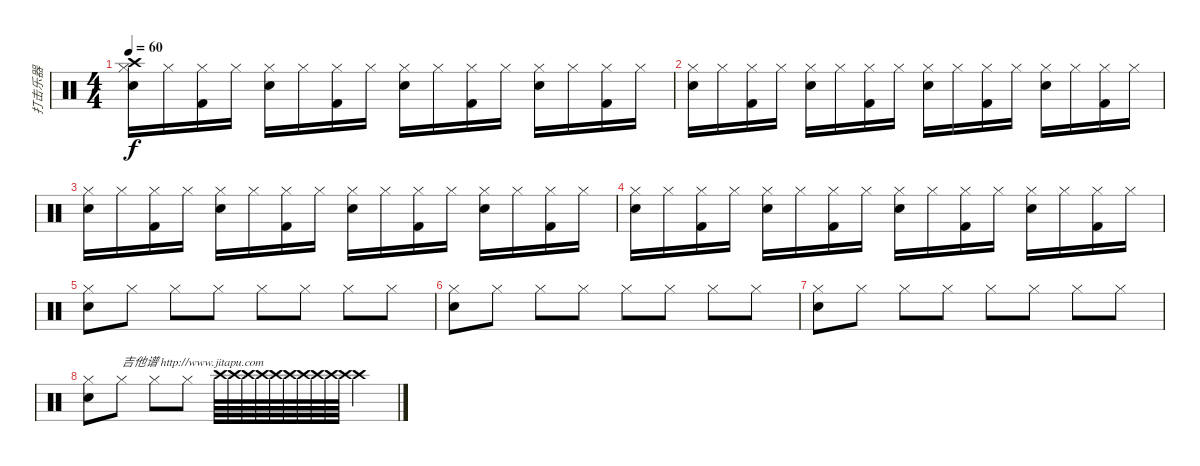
\track ("打击乐器" "打击乐器") {instrument percussion}
\staff {score}
\articulation defaults
\ts (4 4)
\tempo 60
\clef neutral
\ks c
("Crash high (hit)" "Snare (hit) 2" "Hi-Hat (closed)").16{dy f} "Hi-Hat (closed)".16 ("Kick (hit) 2" "Hi-Hat (closed)").16 "Hi-Hat (closed)".16 ("Snare (hit) 2" "Hi-Hat (closed)").16 "Hi-Hat (closed)".16 ("Kick (hit) 2" "Hi-Hat (closed)").16 "Hi-Hat (closed)".16 ("Snare (hit) 2" "Hi-Hat (closed)").16 "Hi-Hat (closed)".16 ("Kick (hit) 2" "Hi-Hat (closed)").16 "Hi-Hat (closed)".16 ("Snare (hit) 2" "Hi-Hat (closed)").16 "Hi-Hat (closed)".16 ("Kick (hit) 2" "Hi-Hat (closed)").16 "Hi-Hat (closed)".16 |
("Snare (hit) 2" "Hi-Hat (closed)").16 "Hi-Hat (closed)".16 ("Kick (hit) 2" "Hi-Hat (closed)").16 "Hi-Hat (closed)".16 ("Snare (hit) 2" "Hi-Hat (closed)").16 "Hi-Hat (closed)".16 ("Kick (hit) 2" "Hi-Hat (closed)").16 "Hi-Hat (closed)".16 ("Snare (hit) 2" "Hi-Hat (closed)").16 "Hi-Hat (closed)".16 ("Kick (hit) 2" "Hi-Hat (closed)").16 "Hi-Hat (closed)".16 ("Snare (hit) 2" "Hi-Hat (closed)").16 "Hi-Hat (closed)".16 ("Kick (hit) 2" "Hi-Hat (closed)").16 "Hi-Hat (closed)".16 |
("Snare (hit) 2" "Hi-Hat (closed)").16 "Hi-Hat (closed)".16 ("Kick (hit) 2" "Hi-Hat (closed)").16 "Hi-Hat (closed)".16 ("Snare (hit) 2" "Hi-Hat (closed)").16 "Hi-Hat (closed)".16 ("Kick (hit) 2" "Hi-Hat (closed)").16 "Hi-Hat (closed)".16 ("Snare (hit) 2" "Hi-Hat (closed)").16 "Hi-Hat (closed)".16 ("Kick (hit) 2" "Hi-Hat (closed)").16 "Hi-Hat (closed)".16 ("Snare (hit) 2" "Hi-Hat (closed)").16 "Hi-Hat (closed)".16 ("Kick (hit) 2" "Hi-Hat (closed)").16 "Hi-Hat (closed)".16 |
("Snare (hit) 2" "Hi-Hat (closed)").16 "Hi-Hat (closed)".16 ("Kick (hit) 2" "Hi-Hat (closed)").16 "Hi-Hat (closed)".16 ("Snare (hit) 2" "Hi-Hat (closed)").16 "Hi-Hat (closed)".16 ("Kick (hit) 2" "Hi-Hat (closed)").16 "Hi-Hat (closed)".16 ("Snare (hit) 2" "Hi-Hat (closed)").16 "Hi-Hat (closed)".16 ("Kick (hit) 2" "Hi-Hat (closed)").16 "Hi-Hat (closed)".16 ("Snare (hit) 2" "Hi-Hat (closed)").16 "Hi-Hat (closed)".16 ("Kick (hit) 2" "Hi-Hat (closed)").16 "Hi-Hat (closed)".16 |
("Snare (hit) 2" "Hi-Hat (closed)").8 "Hi-Hat (closed)".8 "Hi-Hat (closed)".8 "Hi-Hat (closed)".8 "Hi-Hat (closed)".8 "Hi-Hat (closed)".8 "Hi-Hat (closed)".8 "Hi-Hat (closed)".8 |
("Snare (hit) 2" "Hi-Hat (closed)").8 "Hi-Hat (closed)".8 "Hi-Hat (closed)".8 "Hi-Hat (closed)".8 "Hi-Hat (closed)".8 "Hi-Hat (closed)".8 "Hi-Hat (closed)".8 "Hi-Hat (closed)".8 |
("Snare (hit) 2" "Hi-Hat (closed)").8 "Hi-Hat (closed)".8 "Hi-Hat (closed)".8 "Hi-Hat (closed)".8 "Hi-Hat (closed)".8 "Hi-Hat (closed)".8 "Hi-Hat (closed)".8 "Hi-Hat (closed)".8 |
("Snare (hit) 2" "Hi-Hat (closed)").8 "Hi-Hat (closed)".8{txt "吉他谱 http://www.jitapu.com"} "Hi-Hat (closed)".8 "Hi-Hat (closed)".8 "Crash high (hit)".64 "Crash high (hit)".64 "Crash high (hit)".64 "Crash high (hit)".64 "Crash high (hit)".64 "Crash high (hit)".64 "Crash high (hit)".64 "Crash high (hit)".64 "Crash high (hit)".64 "Crash high (hit)".64 "Crash high (hit)".4
